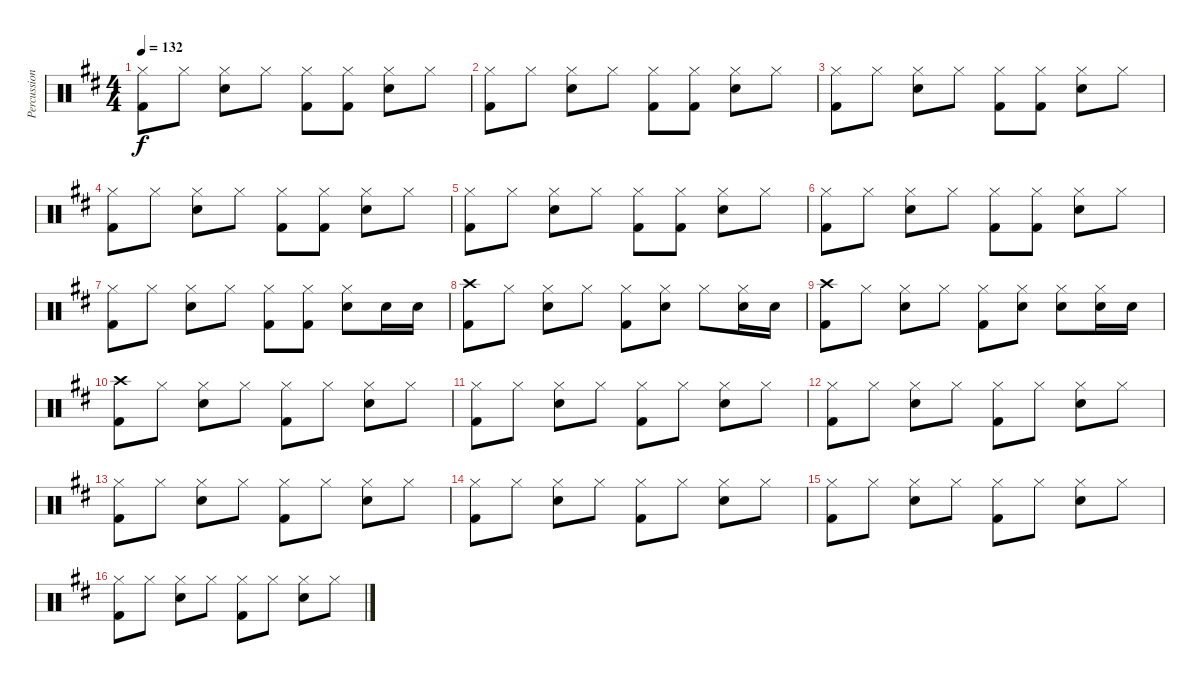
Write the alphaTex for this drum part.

\track ("Percussion" "Percussion") {instrument percussion}
\staff {score}
\articulation defaults
\ts (4 4)
\tempo 132
\clef neutral
\ks d
("Hi-Hat (closed)" "Kick (hit) 2").8{dy f} "Hi-Hat (closed)".8 ("Hi-Hat (closed)" "Electric Snare (hit)").8 "Hi-Hat (closed)".8 ("Hi-Hat (closed)" "Kick (hit) 2").8 ("Hi-Hat (closed)" "Kick (hit) 2").8 ("Hi-Hat (closed)" "Electric Snare (hit)").8 "Hi-Hat (closed)".8 |
("Hi-Hat (closed)" "Kick (hit) 2").8 "Hi-Hat (closed)".8 ("Hi-Hat (closed)" "Electric Snare (hit)").8 "Hi-Hat (closed)".8 ("Hi-Hat (closed)" "Kick (hit) 2").8 ("Hi-Hat (closed)" "Kick (hit) 2").8 ("Hi-Hat (closed)" "Electric Snare (hit)").8 "Hi-Hat (closed)".8 |
("Hi-Hat (closed)" "Kick (hit) 2").8 "Hi-Hat (closed)".8 ("Hi-Hat (closed)" "Electric Snare (hit)").8 "Hi-Hat (closed)".8 ("Hi-Hat (closed)" "Kick (hit) 2").8 ("Hi-Hat (closed)" "Kick (hit) 2").8 ("Hi-Hat (closed)" "Electric Snare (hit)").8 "Hi-Hat (closed)".8 |
("Hi-Hat (closed)" "Kick (hit) 2").8 "Hi-Hat (closed)".8 ("Hi-Hat (closed)" "Electric Snare (hit)").8 "Hi-Hat (closed)".8 ("Hi-Hat (closed)" "Kick (hit) 2").8 ("Hi-Hat (closed)" "Kick (hit) 2").8 ("Hi-Hat (closed)" "Electric Snare (hit)").8 "Hi-Hat (closed)".8 |
("Hi-Hat (closed)" "Kick (hit) 2").8 "Hi-Hat (closed)".8 ("Hi-Hat (closed)" "Electric Snare (hit)").8 "Hi-Hat (closed)".8 ("Hi-Hat (closed)" "Kick (hit) 2").8 ("Hi-Hat (closed)" "Kick (hit) 2").8 ("Hi-Hat (closed)" "Electric Snare (hit)").8 "Hi-Hat (closed)".8 |
("Hi-Hat (closed)" "Kick (hit) 2").8 "Hi-Hat (closed)".8 ("Hi-Hat (closed)" "Electric Snare (hit)").8 "Hi-Hat (closed)".8 ("Hi-Hat (closed)" "Kick (hit) 2").8 ("Hi-Hat (closed)" "Kick (hit) 2").8 ("Hi-Hat (closed)" "Electric Snare (hit)").8 "Hi-Hat (closed)".8 |
("Hi-Hat (closed)" "Kick (hit) 2").8 "Hi-Hat (closed)".8 ("Hi-Hat (closed)" "Electric Snare (hit)").8 "Hi-Hat (closed)".8 ("Hi-Hat (closed)" "Kick (hit) 2").8 ("Hi-Hat (closed)" "Kick (hit) 2").8 ("Hi-Hat (closed)" "Electric Snare (hit)").8 "Electric Snare (hit)".16 "Electric Snare (hit)".16 |
("Crash high (hit)" "Kick (hit) 2").8 "Hi-Hat (closed)".8 ("Hi-Hat (closed)" "Electric Snare (hit)").8 "Hi-Hat (closed)".8 ("Hi-Hat (closed)" "Kick (hit) 2").8 ("Hi-Hat (closed)" "Electric Snare (hit)").8 "Hi-Hat (closed)".8 ("Hi-Hat (closed)" "Electric Snare (hit)").16 "Electric Snare (hit)".16 |
("Crash high (hit)" "Kick (hit) 2").8 "Hi-Hat (closed)".8 ("Hi-Hat (closed)" "Electric Snare (hit)").8 "Hi-Hat (closed)".8 ("Hi-Hat (closed)" "Kick (hit) 2").8 ("Hi-Hat (closed)" "Electric Snare (hit)").8 ("Hi-Hat (closed)" "Electric Snare (hit)").8 ("Hi-Hat (closed)" "Electric Snare (hit)").16 "Electric Snare (hit)".16 |
("Crash high (hit)" "Kick (hit) 2").8 "Hi-Hat (closed)".8 ("Hi-Hat (closed)" "Electric Snare (hit)").8 "Hi-Hat (closed)".8 ("Hi-Hat (closed)" "Kick (hit) 2").8 "Hi-Hat (closed)".8 ("Hi-Hat (closed)" "Electric Snare (hit)").8 "Hi-Hat (closed)".8 |
("Hi-Hat (closed)" "Kick (hit) 2").8 "Hi-Hat (closed)".8 ("Hi-Hat (closed)" "Electric Snare (hit)").8 "Hi-Hat (closed)".8 ("Hi-Hat (closed)" "Kick (hit) 2").8 "Hi-Hat (closed)".8 ("Hi-Hat (closed)" "Electric Snare (hit)").8 "Hi-Hat (closed)".8 |
("Hi-Hat (closed)" "Kick (hit) 2").8 "Hi-Hat (closed)".8 ("Hi-Hat (closed)" "Electric Snare (hit)").8 "Hi-Hat (closed)".8 ("Hi-Hat (closed)" "Kick (hit) 2").8 "Hi-Hat (closed)".8 ("Hi-Hat (closed)" "Electric Snare (hit)").8 "Hi-Hat (closed)".8 |
("Hi-Hat (closed)" "Kick (hit) 2").8 "Hi-Hat (closed)".8 ("Hi-Hat (closed)" "Electric Snare (hit)").8 "Hi-Hat (closed)".8 ("Hi-Hat (closed)" "Kick (hit) 2").8 "Hi-Hat (closed)".8 ("Hi-Hat (closed)" "Electric Snare (hit)").8 "Hi-Hat (closed)".8 |
("Hi-Hat (closed)" "Kick (hit) 2").8 "Hi-Hat (closed)".8 ("Hi-Hat (closed)" "Electric Snare (hit)").8 "Hi-Hat (closed)".8 ("Hi-Hat (closed)" "Kick (hit) 2").8 "Hi-Hat (closed)".8 ("Hi-Hat (closed)" "Electric Snare (hit)").8 "Hi-Hat (closed)".8 |
("Hi-Hat (closed)" "Kick (hit) 2").8 "Hi-Hat (closed)".8 ("Hi-Hat (closed)" "Electric Snare (hit)").8 "Hi-Hat (closed)".8 ("Hi-Hat (closed)" "Kick (hit) 2").8 "Hi-Hat (closed)".8 ("Hi-Hat (closed)" "Electric Snare (hit)").8 "Hi-Hat (closed)".8 |
("Hi-Hat (closed)" "Kick (hit) 2").8 "Hi-Hat (closed)".8 ("Hi-Hat (closed)" "Electric Snare (hit)").8 "Hi-Hat (closed)".8 ("Hi-Hat (closed)" "Kick (hit) 2").8 "Hi-Hat (closed)".8 ("Hi-Hat (closed)" "Electric Snare (hit)").8 "Hi-Hat (closed)".8
